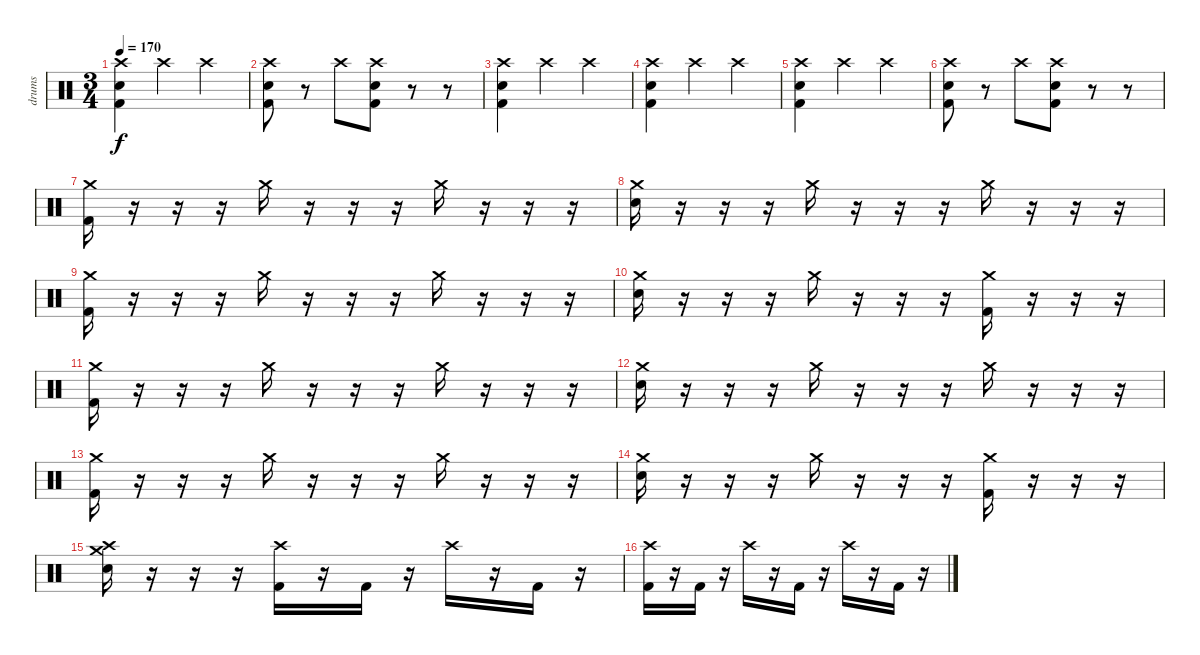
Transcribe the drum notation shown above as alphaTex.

\track ("drums" "drums") {instrument percussion}
\staff {score}
\articulation defaults
\ts (3 4)
\tempo 170
\clef neutral
\ks c
("Kick (hit) 2" "Snare (hit) 2" "Crash high (hit)").4{dy f} "Crash high (hit)".4 "Crash high (hit)".4 |
("Kick (hit) 2" "Crash high (hit)" "Snare (hit) 2").8 r.8 "Crash high (hit)".8 ("Kick (hit) 2" "Crash high (hit)" "Snare (hit) 2").8 r.8 r.8 |
("Kick (hit) 2" "Snare (hit) 2" "Crash high (hit)").4 "Crash high (hit)".4 "Crash high (hit)".4 |
("Kick (hit) 2" "Snare (hit) 2" "Crash high (hit)").4 "Crash high (hit)".4 "Crash high (hit)".4 |
("Kick (hit) 2" "Snare (hit) 2" "Crash high (hit)").4 "Crash high (hit)".4 "Crash high (hit)".4 |
("Kick (hit) 2" "Crash high (hit)" "Snare (hit) 2").8 r.8 "Crash high (hit)".8 ("Kick (hit) 2" "Crash high (hit)" "Snare (hit) 2").8 r.8 r.8 |
("Kick (hit) 2" "Crash medium (hit)").16 r.16 r.16 r.16 "Crash medium (hit)".16 r.16 r.16 r.16 "Crash medium (hit)".16 r.16 r.16 r.16 |
("Snare (hit) 2" "Crash medium (hit)").16 r.16 r.16 r.16 "Crash medium (hit)".16 r.16 r.16 r.16 "Crash medium (hit)".16 r.16 r.16 r.16 |
("Kick (hit) 2" "Crash medium (hit)").16 r.16 r.16 r.16 "Crash medium (hit)".16 r.16 r.16 r.16 "Crash medium (hit)".16 r.16 r.16 r.16 |
("Crash medium (hit)" "Snare (hit) 2").16 r.16 r.16 r.16 "Crash medium (hit)".16 r.16 r.16 r.16 ("Crash medium (hit)" "Kick (hit) 2").16 r.16 r.16 r.16 |
("Crash medium (hit)" "Kick (hit) 2").16 r.16 r.16 r.16 "Crash medium (hit)".16 r.16 r.16 r.16 "Crash medium (hit)".16 r.16 r.16 r.16 |
("Crash medium (hit)" "Snare (hit) 2").16 r.16 r.16 r.16 "Crash medium (hit)".16 r.16 r.16 r.16 "Crash medium (hit)".16 r.16 r.16 r.16 |
("Crash medium (hit)" "Kick (hit) 2").16 r.16 r.16 r.16 "Crash medium (hit)".16 r.16 r.16 r.16 "Crash medium (hit)".16 r.16 r.16 r.16 |
("Crash medium (hit)" "Snare (hit) 2").16 r.16 r.16 r.16 "Crash medium (hit)".16 r.16 r.16 r.16 ("Crash medium (hit)" "Kick (hit) 2").16 r.16 r.16 r.16 |
("Snare (hit) 2" "Crash high (hit)" "Crash medium (hit)").16 r.16 r.16 r.16 ("Crash high (hit)" "Kick (hit) 2").16 r.16 "Kick (hit) 2".16 r.16 "Crash high (hit)".16 r.16 "Kick (hit) 2".16 r.16 |
("Kick (hit) 2" "Crash high (hit)").16 r.16 "Kick (hit) 2".16 r.16 "Crash high (hit)".16 r.16 "Kick (hit) 2".16 r.16 "Crash high (hit)".16 r.16 "Kick (hit) 2".16 r.16
